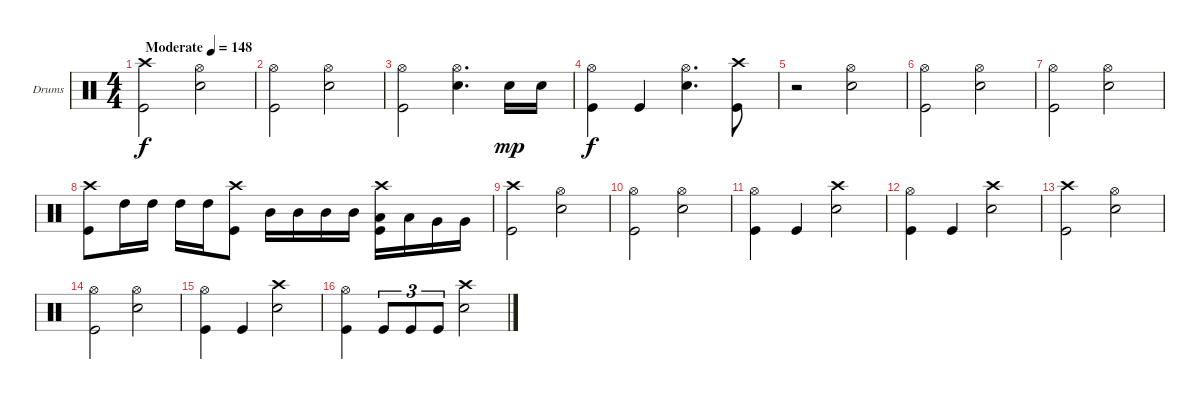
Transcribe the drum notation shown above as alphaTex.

\bracketExtendMode groupsimilarinstruments
\firstSystemTrackNameOrientation horizontal
\otherSystemsTrackNameOrientation horizontal
\track ("Drumkit" "Drums") {instrument percussion}
\staff {score}
\articulation defaults
\ts (4 4)
\beaming (8 2 2 2 2)
\tempo (148 "Moderate")
\clef neutral
\ks c
("Crash high (hit)" "Kick (hit)").2{dy f} ("Hi-Hat (open)" "Snare (hit) 2").2 |
("Hi-Hat (open)" "Kick (hit)").2 ("Hi-Hat (open)" "Snare (hit) 2").2 |
("Hi-Hat (open)" "Kick (hit)").2 ("Hi-Hat (open)" "Snare (hit) 2").4{d} "Snare (hit) 2".16{dy mp} "Snare (hit) 2".16 |
("Hi-Hat (open)" "Kick (hit)").4{dy f} "Kick (hit)".4 ("Hi-Hat (open)" "Snare (hit) 2").4{d} ("Crash high (hit)" "Kick (hit)").8 |
r.2 ("Hi-Hat (open)" "Snare (hit) 2").2 |
("Hi-Hat (open)" "Kick (hit)").2 ("Hi-Hat (open)" "Snare (hit) 2").2 |
("Hi-Hat (open)" "Kick (hit)").2 ("Hi-Hat (open)" "Snare (hit) 2").2 |
("Crash high (hit)" "Kick (hit)").8 "High Tom (hit)".16 "High Tom (hit)".16 "High Tom (hit)".16 "High Tom (hit)".16 ("Crash high (hit)" "Kick (hit)").8 "Mid Tom (hit)".16 "Mid Tom (hit)".16 "Mid Tom (hit)".16 "Mid Tom (hit)".16 ("Crash high (hit)" "Low Tom (hit)" "Kick (hit)").16 "Low Tom (hit)".16 "Very Low Tom (hit)".16 "Very Low Tom (hit)".16 |
("Crash high (hit)" "Kick (hit)").2 ("Hi-Hat (open)" "Snare (hit) 2").2 |
("Hi-Hat (open)" "Kick (hit)").2 ("Hi-Hat (open)" "Snare (hit) 2").2 |
("Hi-Hat (open)" "Kick (hit)").4 "Kick (hit)".4 ("Crash high (hit)" "Snare (hit) 2").2 |
("Hi-Hat (open)" "Kick (hit)").4 "Kick (hit)".4 ("Crash high (hit)" "Snare (hit) 2").2 |
("Crash high (hit)" "Kick (hit)").2 ("Hi-Hat (open)" "Snare (hit) 2").2 |
("Hi-Hat (open)" "Kick (hit)").2 ("Hi-Hat (open)" "Snare (hit) 2").2 |
("Hi-Hat (open)" "Kick (hit)").4 "Kick (hit)".4 ("Crash high (hit)" "Snare (hit) 2").2 |
("Hi-Hat (open)" "Kick (hit)").4 "Kick (hit)".8{tu (3 2)} "Kick (hit)".8{tu (3 2)} "Kick (hit)".8{tu (3 2)} ("Crash high (hit)" "Snare (hit) 2").2
